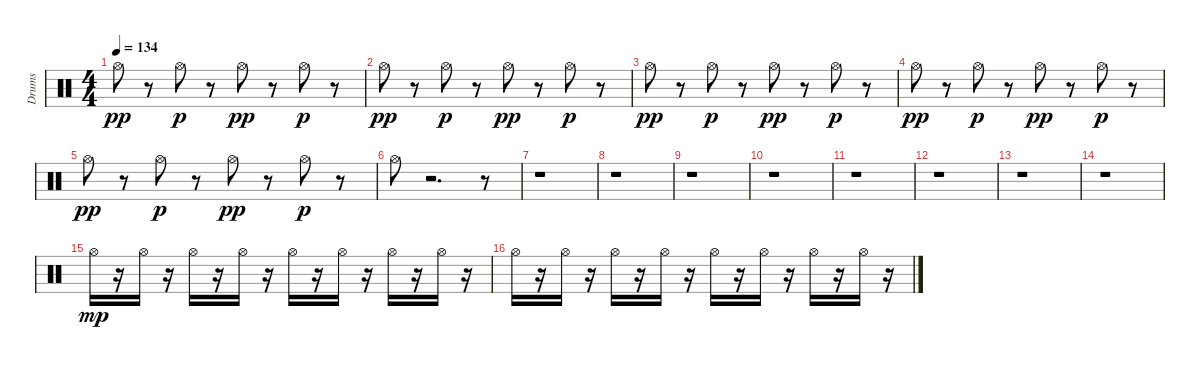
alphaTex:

\track ("Drums" "Drums") {instrument percussion}
\staff {score}
\articulation defaults
\ts (4 4)
\tempo 134
\clef neutral
\ks c "Hi-Hat (open)".8{dy pp}
r.8 "Hi-Hat (open)".8{dy p} r.8 "Hi-Hat (open)".8{dy pp} r.8 "Hi-Hat (open)".8{dy p} r.8 |
"Hi-Hat (open)".8{dy pp} r.8 "Hi-Hat (open)".8{dy p} r.8 "Hi-Hat (open)".8{dy pp} r.8 "Hi-Hat (open)".8{dy p} r.8 |
"Hi-Hat (open)".8{dy pp} r.8 "Hi-Hat (open)".8{dy p} r.8 "Hi-Hat (open)".8{dy pp} r.8 "Hi-Hat (open)".8{dy p} r.8 |
"Hi-Hat (open)".8{dy pp} r.8 "Hi-Hat (open)".8{dy p} r.8 "Hi-Hat (open)".8{dy pp} r.8 "Hi-Hat (open)".8{dy p} r.8 |
"Hi-Hat (open)".8{dy pp} r.8 "Hi-Hat (open)".8{dy p} r.8 "Hi-Hat (open)".8{dy pp} r.8 "Hi-Hat (open)".8{dy p} r.8 |
"Hi-Hat (open)".8 r.2{d} r.8 |
r.1 |
r.1 |
r.1 |
r.1 |
r.1 |
r.1 |
r.1 |
r.1 |
"Hi-Hat (open)".16{dy mp} r.16 "Hi-Hat (open)".16 r.16 "Hi-Hat (open)".16 r.16 "Hi-Hat (open)".16 r.16 "Hi-Hat (open)".16 r.16 "Hi-Hat (open)".16 r.16 "Hi-Hat (open)".16 r.16 "Hi-Hat (open)".16 r.16 |
"Hi-Hat (open)".16 r.16 "Hi-Hat (open)".16 r.16 "Hi-Hat (open)".16 r.16 "Hi-Hat (open)".16 r.16 "Hi-Hat (open)".16 r.16 "Hi-Hat (open)".16 r.16 "Hi-Hat (open)".16 r.16 "Hi-Hat (open)".16 r.16
